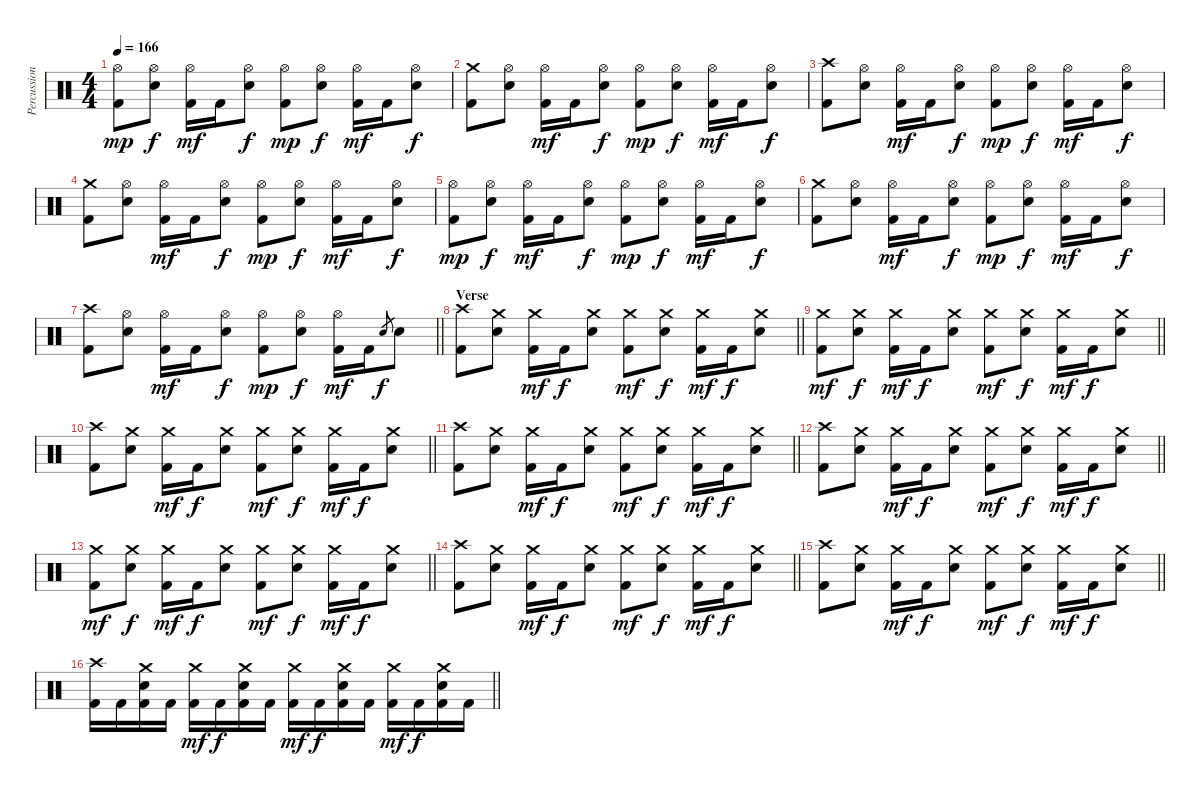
\track ("Percussion" "Percussion") {instrument percussion}
\staff {score}
\articulation defaults
\ts (4 4)
\tempo 166
\clef neutral
\ks c
("Hi-Hat (open)" "Kick (hit) 2").8{dy mp} ("Hi-Hat (open)" "Electric Snare (hit)").8{dy f} ("Hi-Hat (open)" "Kick (hit) 2").16{dy mf} "Kick (hit) 2".16 ("Hi-Hat (open)" "Electric Snare (hit)").8{dy f} ("Hi-Hat (open)" "Kick (hit) 2").8{dy mp} ("Hi-Hat (open)" "Electric Snare (hit)").8{dy f} ("Hi-Hat (open)" "Kick (hit) 2").16{dy mf} "Kick (hit) 2".16 ("Hi-Hat (open)" "Electric Snare (hit)").8{dy f} |
("Crash medium (hit)" "Kick (hit) 2").8 ("Hi-Hat (open)" "Electric Snare (hit)").8 ("Hi-Hat (open)" "Kick (hit) 2").16{dy mf} "Kick (hit) 2".16 ("Hi-Hat (open)" "Electric Snare (hit)").8{dy f} ("Hi-Hat (open)" "Kick (hit) 2").8{dy mp} ("Hi-Hat (open)" "Electric Snare (hit)").8{dy f} ("Hi-Hat (open)" "Kick (hit) 2").16{dy mf} "Kick (hit) 2".16 ("Hi-Hat (open)" "Electric Snare (hit)").8{dy f} |
("Crash high (hit)" "Kick (hit) 2").8 ("Hi-Hat (open)" "Electric Snare (hit)").8 ("Hi-Hat (open)" "Kick (hit) 2").16{dy mf} "Kick (hit) 2".16 ("Hi-Hat (open)" "Electric Snare (hit)").8{dy f} ("Hi-Hat (open)" "Kick (hit) 2").8{dy mp} ("Hi-Hat (open)" "Electric Snare (hit)").8{dy f} ("Hi-Hat (open)" "Kick (hit) 2").16{dy mf} "Kick (hit) 2".16 ("Hi-Hat (open)" "Electric Snare (hit)").8{dy f} |
("Crash medium (hit)" "Kick (hit) 2").8 ("Hi-Hat (open)" "Electric Snare (hit)").8 ("Hi-Hat (open)" "Kick (hit) 2").16{dy mf} "Kick (hit) 2".16 ("Hi-Hat (open)" "Electric Snare (hit)").8{dy f} ("Hi-Hat (open)" "Kick (hit) 2").8{dy mp} ("Hi-Hat (open)" "Electric Snare (hit)").8{dy f} ("Hi-Hat (open)" "Kick (hit) 2").16{dy mf} "Kick (hit) 2".16 ("Hi-Hat (open)" "Electric Snare (hit)").8{dy f} |
("Hi-Hat (open)" "Kick (hit) 2").8{dy mp} ("Hi-Hat (open)" "Electric Snare (hit)").8{dy f} ("Hi-Hat (open)" "Kick (hit) 2").16{dy mf} "Kick (hit) 2".16 ("Hi-Hat (open)" "Electric Snare (hit)").8{dy f} ("Hi-Hat (open)" "Kick (hit) 2").8{dy mp} ("Hi-Hat (open)" "Electric Snare (hit)").8{dy f} ("Hi-Hat (open)" "Kick (hit) 2").16{dy mf} "Kick (hit) 2".16 ("Hi-Hat (open)" "Electric Snare (hit)").8{dy f} |
("Crash medium (hit)" "Kick (hit) 2").8 ("Hi-Hat (open)" "Electric Snare (hit)").8 ("Hi-Hat (open)" "Kick (hit) 2").16{dy mf} "Kick (hit) 2".16 ("Hi-Hat (open)" "Electric Snare (hit)").8{dy f} ("Hi-Hat (open)" "Kick (hit) 2").8{dy mp} ("Hi-Hat (open)" "Electric Snare (hit)").8{dy f} ("Hi-Hat (open)" "Kick (hit) 2").16{dy mf} "Kick (hit) 2".16 ("Hi-Hat (open)" "Electric Snare (hit)").8{dy f} |
\barLineRight lightlight
("Crash high (hit)" "Kick (hit) 2").8 ("Hi-Hat (open)" "Electric Snare (hit)").8 ("Hi-Hat (open)" "Kick (hit) 2").16{dy mf} "Kick (hit) 2".16 ("Hi-Hat (open)" "Electric Snare (hit)").8{dy f} ("Hi-Hat (open)" "Kick (hit) 2").8{dy mp} ("Hi-Hat (open)" "Electric Snare (hit)").8{dy f} ("Hi-Hat (open)" "Kick (hit) 2").16{dy mf} "Kick (hit) 2".16 "Electric Snare (hit)".8{gr dy f} "Electric Snare (hit)".8 |
\section ("" "Verse")
\barLineRight lightlight
("Crash high (hit)" "Kick (hit) 2").8 ("Crash medium (hit)" "Electric Snare (hit)").8 ("Crash medium (hit)" "Kick (hit) 2").16{dy mf} "Kick (hit) 2".16{dy f} ("Crash medium (hit)" "Electric Snare (hit)").8 ("Crash medium (hit)" "Kick (hit) 2").8{dy mf} ("Crash medium (hit)" "Electric Snare (hit)").8{dy f} ("Crash medium (hit)" "Kick (hit) 2").16{dy mf} "Kick (hit) 2".16{dy f} ("Crash medium (hit)" "Electric Snare (hit)").8 |
\barLineRight lightlight
("Crash medium (hit)" "Kick (hit) 2").8{dy mf} ("Crash medium (hit)" "Electric Snare (hit)").8{dy f} ("Crash medium (hit)" "Kick (hit) 2").16{dy mf} "Kick (hit) 2".16{dy f} ("Crash medium (hit)" "Electric Snare (hit)").8 ("Crash medium (hit)" "Kick (hit) 2").8{dy mf} ("Crash medium (hit)" "Electric Snare (hit)").8{dy f} ("Crash medium (hit)" "Kick (hit) 2").16{dy mf} "Kick (hit) 2".16{dy f} ("Crash medium (hit)" "Electric Snare (hit)").8 |
\barLineRight lightlight
("Crash high (hit)" "Kick (hit) 2").8 ("Crash medium (hit)" "Electric Snare (hit)").8 ("Crash medium (hit)" "Kick (hit) 2").16{dy mf} "Kick (hit) 2".16{dy f} ("Crash medium (hit)" "Electric Snare (hit)").8 ("Crash medium (hit)" "Kick (hit) 2").8{dy mf} ("Crash medium (hit)" "Electric Snare (hit)").8{dy f} ("Crash medium (hit)" "Kick (hit) 2").16{dy mf} "Kick (hit) 2".16{dy f} ("Crash medium (hit)" "Electric Snare (hit)").8 |
\barLineRight lightlight
("Crash high (hit)" "Kick (hit) 2").8 ("Crash medium (hit)" "Electric Snare (hit)").8 ("Crash medium (hit)" "Kick (hit) 2").16{dy mf} "Kick (hit) 2".16{dy f} ("Crash medium (hit)" "Electric Snare (hit)").8 ("Crash medium (hit)" "Kick (hit) 2").8{dy mf} ("Crash medium (hit)" "Electric Snare (hit)").8{dy f} ("Crash medium (hit)" "Kick (hit) 2").16{dy mf} "Kick (hit) 2".16{dy f} ("Crash medium (hit)" "Electric Snare (hit)").8 |
\barLineRight lightlight
("Crash high (hit)" "Kick (hit) 2").8 ("Crash medium (hit)" "Electric Snare (hit)").8 ("Crash medium (hit)" "Kick (hit) 2").16{dy mf} "Kick (hit) 2".16{dy f} ("Crash medium (hit)" "Electric Snare (hit)").8 ("Crash medium (hit)" "Kick (hit) 2").8{dy mf} ("Crash medium (hit)" "Electric Snare (hit)").8{dy f} ("Crash medium (hit)" "Kick (hit) 2").16{dy mf} "Kick (hit) 2".16{dy f} ("Crash medium (hit)" "Electric Snare (hit)").8 |
\barLineRight lightlight
("Crash medium (hit)" "Kick (hit) 2").8{dy mf} ("Crash medium (hit)" "Electric Snare (hit)").8{dy f} ("Crash medium (hit)" "Kick (hit) 2").16{dy mf} "Kick (hit) 2".16{dy f} ("Crash medium (hit)" "Electric Snare (hit)").8 ("Crash medium (hit)" "Kick (hit) 2").8{dy mf} ("Crash medium (hit)" "Electric Snare (hit)").8{dy f} ("Crash medium (hit)" "Kick (hit) 2").16{dy mf} "Kick (hit) 2".16{dy f} ("Crash medium (hit)" "Electric Snare (hit)").8 |
\barLineRight lightlight
("Crash high (hit)" "Kick (hit) 2").8 ("Crash medium (hit)" "Electric Snare (hit)").8 ("Crash medium (hit)" "Kick (hit) 2").16{dy mf} "Kick (hit) 2".16{dy f} ("Crash medium (hit)" "Electric Snare (hit)").8 ("Crash medium (hit)" "Kick (hit) 2").8{dy mf} ("Crash medium (hit)" "Electric Snare (hit)").8{dy f} ("Crash medium (hit)" "Kick (hit) 2").16{dy mf} "Kick (hit) 2".16{dy f} ("Crash medium (hit)" "Electric Snare (hit)").8 |
\barLineRight lightlight
("Crash high (hit)" "Kick (hit) 2").8 ("Crash medium (hit)" "Electric Snare (hit)").8 ("Crash medium (hit)" "Kick (hit) 2").16{dy mf} "Kick (hit) 2".16{dy f} ("Crash medium (hit)" "Electric Snare (hit)").8 ("Crash medium (hit)" "Kick (hit) 2").8{dy mf} ("Crash medium (hit)" "Electric Snare (hit)").8{dy f} ("Crash medium (hit)" "Kick (hit) 2").16{dy mf} "Kick (hit) 2".16{dy f} ("Crash medium (hit)" "Electric Snare (hit)").8 |
\barLineRight lightlight
("Crash high (hit)" "Kick (hit) 2").16 "Kick (hit) 2".16 ("Crash medium (hit)" "Electric Snare (hit)" "Kick (hit) 2").16 "Kick (hit) 2".16 ("Crash medium (hit)" "Kick (hit) 2").16{dy mf} "Kick (hit) 2".16{dy f} ("Crash medium (hit)" "Electric Snare (hit)" "Kick (hit) 2").16 "Kick (hit) 2".16 ("Crash medium (hit)" "Kick (hit) 2").16{dy mf} "Kick (hit) 2".16{dy f} ("Crash medium (hit)" "Electric Snare (hit)" "Kick (hit) 2").16 "Kick (hit) 2".16 ("Crash medium (hit)" "Kick (hit) 2").16{dy mf} "Kick (hit) 2".16{dy f} ("Crash medium (hit)" "Electric Snare (hit)" "Kick (hit) 2").16 "Kick (hit) 2".16
